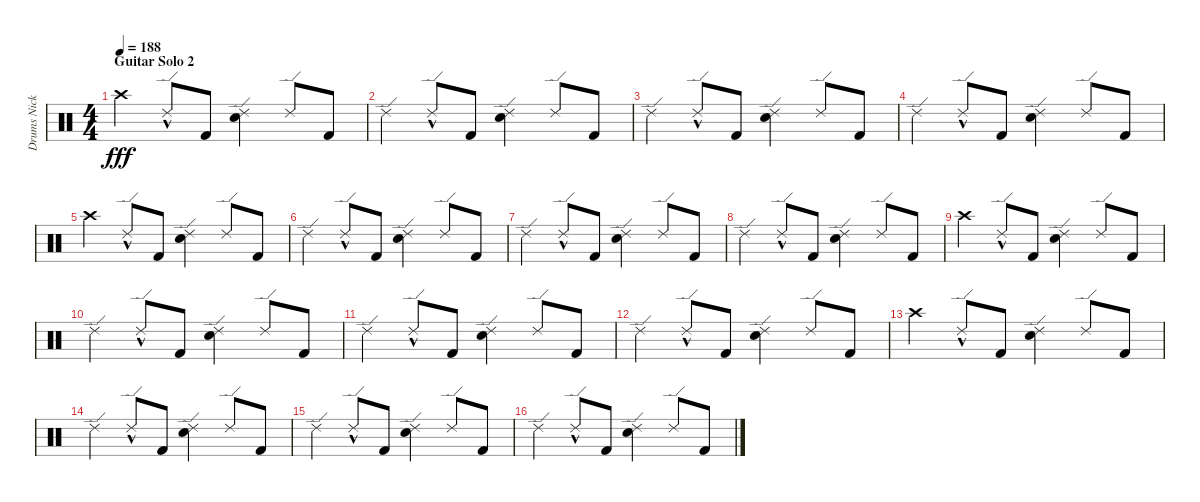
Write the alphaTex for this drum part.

\track ("Drums Nicko McBrain" "Drums Nick") {instrument percussion}
\staff {score}
\articulation defaults
\ts (4 4)
\section ("" "Guitar Solo 2")
\tempo 188
\clef neutral
\ks c "Crash high (hit)".4{dy fff} "Ride (edge) 2"{hac}.8 "Kick (hit) 2".8
("Ride (edge) 2" "Electric Snare (hit)").4 "Ride (edge) 2".8 "Kick (hit) 2".8 |
"Ride (edge) 2".4 "Ride (edge) 2"{hac}.8 "Kick (hit) 2".8 ("Ride (edge) 2" "Electric Snare (hit)").4 "Ride (edge) 2".8 "Kick (hit) 2".8 |
"Ride (edge) 2".4 "Ride (edge) 2"{hac}.8 "Kick (hit) 2".8 ("Ride (edge) 2" "Electric Snare (hit)").4 "Ride (edge) 2".8 "Kick (hit) 2".8 |
"Ride (edge) 2".4 "Ride (edge) 2"{hac}.8 "Kick (hit) 2".8 ("Ride (edge) 2" "Electric Snare (hit)").4 "Ride (edge) 2".8 "Kick (hit) 2".8 |
"Crash high (hit)".4 "Ride (edge) 2"{hac}.8 "Kick (hit) 2".8 ("Ride (edge) 2" "Electric Snare (hit)").4 "Ride (edge) 2".8 "Kick (hit) 2".8 |
"Ride (edge) 2".4 "Ride (edge) 2"{hac}.8 "Kick (hit) 2".8 ("Ride (edge) 2" "Electric Snare (hit)").4 "Ride (edge) 2".8 "Kick (hit) 2".8 |
"Ride (edge) 2".4 "Ride (edge) 2"{hac}.8 "Kick (hit) 2".8 ("Ride (edge) 2" "Electric Snare (hit)").4 "Ride (edge) 2".8 "Kick (hit) 2".8 |
"Ride (edge) 2".4 "Ride (edge) 2"{hac}.8 "Kick (hit) 2".8 ("Ride (edge) 2" "Electric Snare (hit)").4 "Ride (edge) 2".8 "Kick (hit) 2".8 |
"Crash high (hit)".4 "Ride (edge) 2"{hac}.8 "Kick (hit) 2".8 ("Ride (edge) 2" "Electric Snare (hit)").4 "Ride (edge) 2".8 "Kick (hit) 2".8 |
"Ride (edge) 2".4 "Ride (edge) 2"{hac}.8 "Kick (hit) 2".8 ("Ride (edge) 2" "Electric Snare (hit)").4 "Ride (edge) 2".8 "Kick (hit) 2".8 |
"Ride (edge) 2".4 "Ride (edge) 2"{hac}.8 "Kick (hit) 2".8 ("Ride (edge) 2" "Electric Snare (hit)").4 "Ride (edge) 2".8 "Kick (hit) 2".8 |
"Ride (edge) 2".4 "Ride (edge) 2"{hac}.8 "Kick (hit) 2".8 ("Ride (edge) 2" "Electric Snare (hit)").4 "Ride (edge) 2".8 "Kick (hit) 2".8 |
"Crash high (hit)".4 "Ride (edge) 2"{hac}.8 "Kick (hit) 2".8 ("Ride (edge) 2" "Electric Snare (hit)").4 "Ride (edge) 2".8 "Kick (hit) 2".8 |
"Ride (edge) 2".4 "Ride (edge) 2"{hac}.8 "Kick (hit) 2".8 ("Ride (edge) 2" "Electric Snare (hit)").4 "Ride (edge) 2".8 "Kick (hit) 2".8 |
"Ride (edge) 2".4 "Ride (edge) 2"{hac}.8 "Kick (hit) 2".8 ("Ride (edge) 2" "Electric Snare (hit)").4 "Ride (edge) 2".8 "Kick (hit) 2".8 |
"Ride (edge) 2".4 "Ride (edge) 2"{hac}.8 "Kick (hit) 2".8 ("Ride (edge) 2" "Electric Snare (hit)").4 "Ride (edge) 2".8 "Kick (hit) 2".8
